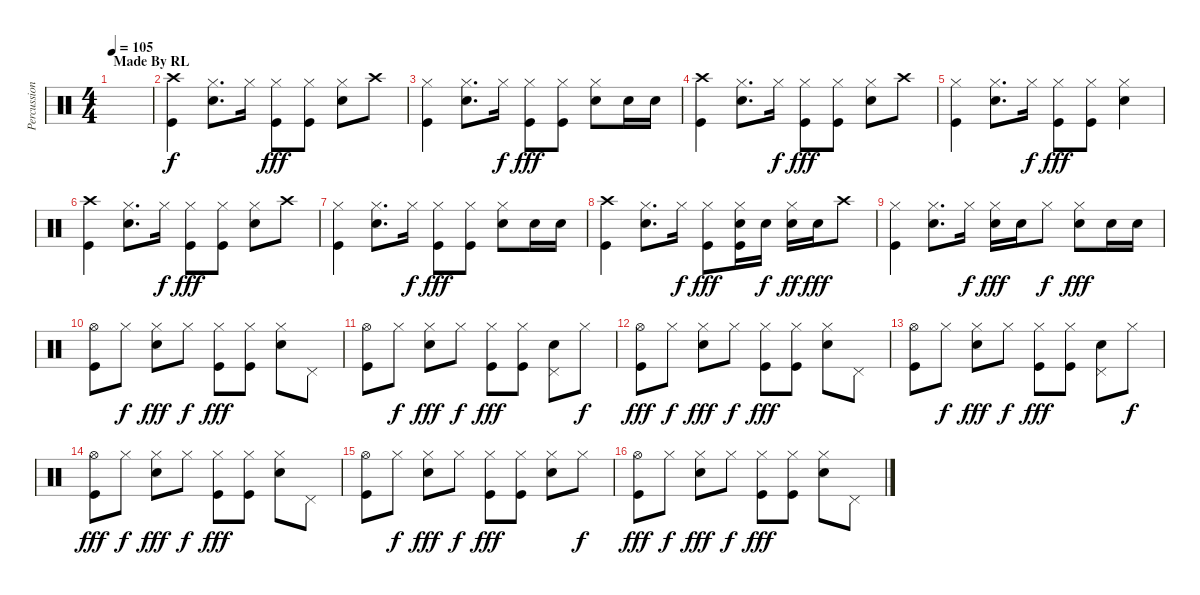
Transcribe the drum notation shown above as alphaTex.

\track ("Percussion" "Percussion") {instrument percussion}
\staff {score}
\articulation defaults
\ts (4 4)
\section ("" "Made By RL")
\tempo 105
\clef neutral
\ks c
|
("Crash high (hit)" "Kick (hit)").4 ("Hi-Hat (closed)" "Electric Snare (hit)").8{d} "Hi-Hat (closed)".16{dy f} ("Hi-Hat (closed)" "Kick (hit)").8{dy fff} ("Hi-Hat (closed)" "Kick (hit)").8 ("Hi-Hat (closed)" "Electric Snare (hit)").8 "Crash high (hit)".8 |
("Hi-Hat (closed)" "Kick (hit)").4 ("Hi-Hat (closed)" "Electric Snare (hit)").8{d} "Hi-Hat (closed)".16{dy f} ("Hi-Hat (closed)" "Kick (hit)").8{dy fff} ("Hi-Hat (closed)" "Kick (hit)").8 ("Hi-Hat (closed)" "Electric Snare (hit)").8 "Electric Snare (hit)".16 "Electric Snare (hit)".16 |
("Crash high (hit)" "Kick (hit)").4 ("Hi-Hat (closed)" "Electric Snare (hit)").8{d} "Hi-Hat (closed)".16{dy f} ("Hi-Hat (closed)" "Kick (hit)").8{dy fff} ("Hi-Hat (closed)" "Kick (hit)").8 ("Hi-Hat (closed)" "Electric Snare (hit)").8 "Crash high (hit)".8 |
("Hi-Hat (closed)" "Kick (hit)").4 ("Hi-Hat (closed)" "Electric Snare (hit)").8{d} "Hi-Hat (closed)".16{dy f} ("Hi-Hat (closed)" "Kick (hit)").8{dy fff} ("Hi-Hat (closed)" "Kick (hit)").8 ("Hi-Hat (closed)" "Electric Snare (hit)").4 |
("Crash high (hit)" "Kick (hit)").4 ("Hi-Hat (closed)" "Electric Snare (hit)").8{d} "Hi-Hat (closed)".16{dy f} ("Hi-Hat (closed)" "Kick (hit)").8{dy fff} ("Hi-Hat (closed)" "Kick (hit)").8 ("Hi-Hat (closed)" "Electric Snare (hit)").8 "Crash high (hit)".8 |
("Hi-Hat (closed)" "Kick (hit)").4 ("Hi-Hat (closed)" "Electric Snare (hit)").8{d} "Hi-Hat (closed)".16{dy f} ("Hi-Hat (closed)" "Kick (hit)").8{dy fff} ("Hi-Hat (closed)" "Kick (hit)").8 ("Hi-Hat (closed)" "Electric Snare (hit)").8 "Electric Snare (hit)".16 "Electric Snare (hit)".16 |
("Crash high (hit)" "Kick (hit)").4 ("Hi-Hat (closed)" "Electric Snare (hit)").8{d} "Hi-Hat (closed)".16{dy f} ("Hi-Hat (closed)" "Kick (hit)").8{dy fff} ("Hi-Hat (closed)" "Electric Snare (hit)" "Kick (hit)").16 "Electric Snare (hit)".16{dy f} ("Hi-Hat (closed)" "Electric Snare (hit)").16{dy ff} "Electric Snare (hit)".16{dy fff} "Crash high (hit)".8 |
("Hi-Hat (closed)" "Kick (hit)").4 ("Hi-Hat (closed)" "Electric Snare (hit)").8{d} "Hi-Hat (closed)".16{dy f} ("Hi-Hat (closed)" "Electric Snare (hit)").16{dy fff} "Electric Snare (hit)".16 "Hi-Hat (closed)".8{dy f} ("Hi-Hat (closed)" "Electric Snare (hit)").8{dy fff} "Electric Snare (hit)".16 "Electric Snare (hit)".16 |
("Hi-Hat (open)" "Kick (hit)").8 "Hi-Hat (closed)".8{dy f} ("Hi-Hat (closed)" "Electric Snare (hit)").8{dy fff} "Hi-Hat (closed)".8{dy f} ("Hi-Hat (closed)" "Kick (hit)").8{dy fff} ("Hi-Hat (closed)" "Kick (hit)").8 ("Hi-Hat (closed)" "Electric Snare (hit)").8 "Pedal Hi-Hat (hit)".8 |
("Hi-Hat (open)" "Kick (hit)").8 "Hi-Hat (closed)".8{dy f} ("Hi-Hat (closed)" "Electric Snare (hit)").8{dy fff} "Hi-Hat (closed)".8{dy f} ("Hi-Hat (closed)" "Kick (hit)").8{dy fff} ("Hi-Hat (closed)" "Kick (hit)").8 ("Pedal Hi-Hat (hit)" "Electric Snare (hit)").8 "Hi-Hat (closed)".8{dy f} |
("Hi-Hat (open)" "Kick (hit)").8{dy fff} "Hi-Hat (closed)".8{dy f} ("Hi-Hat (closed)" "Electric Snare (hit)").8{dy fff} "Hi-Hat (closed)".8{dy f} ("Hi-Hat (closed)" "Kick (hit)").8{dy fff} ("Hi-Hat (closed)" "Kick (hit)").8 ("Hi-Hat (closed)" "Electric Snare (hit)").8 "Pedal Hi-Hat (hit)".8 |
("Hi-Hat (open)" "Kick (hit)").8 "Hi-Hat (closed)".8{dy f} ("Hi-Hat (closed)" "Electric Snare (hit)").8{dy fff} "Hi-Hat (closed)".8{dy f} ("Hi-Hat (closed)" "Kick (hit)").8{dy fff} ("Hi-Hat (closed)" "Kick (hit)").8 ("Pedal Hi-Hat (hit)" "Electric Snare (hit)").8 "Hi-Hat (closed)".8{dy f} |
("Hi-Hat (open)" "Kick (hit)").8{dy fff} "Hi-Hat (closed)".8{dy f} ("Hi-Hat (closed)" "Electric Snare (hit)").8{dy fff} "Hi-Hat (closed)".8{dy f} ("Hi-Hat (closed)" "Kick (hit)").8{dy fff} ("Hi-Hat (closed)" "Kick (hit)").8 ("Hi-Hat (closed)" "Electric Snare (hit)").8 "Pedal Hi-Hat (hit)".8 |
("Hi-Hat (open)" "Kick (hit)").8 "Hi-Hat (closed)".8{dy f} ("Hi-Hat (closed)" "Electric Snare (hit)").8{dy fff} "Hi-Hat (closed)".8{dy f} ("Hi-Hat (closed)" "Kick (hit)").8{dy fff} ("Hi-Hat (closed)" "Kick (hit)").8 ("Hi-Hat (closed)" "Electric Snare (hit)").8 "Hi-Hat (closed)".8{dy f} |
("Hi-Hat (open)" "Kick (hit)").8{dy fff} "Hi-Hat (closed)".8{dy f} ("Hi-Hat (closed)" "Electric Snare (hit)").8{dy fff} "Hi-Hat (closed)".8{dy f} ("Hi-Hat (closed)" "Kick (hit)").8{dy fff} ("Hi-Hat (closed)" "Kick (hit)").8 ("Hi-Hat (closed)" "Electric Snare (hit)").8 "Pedal Hi-Hat (hit)".8
